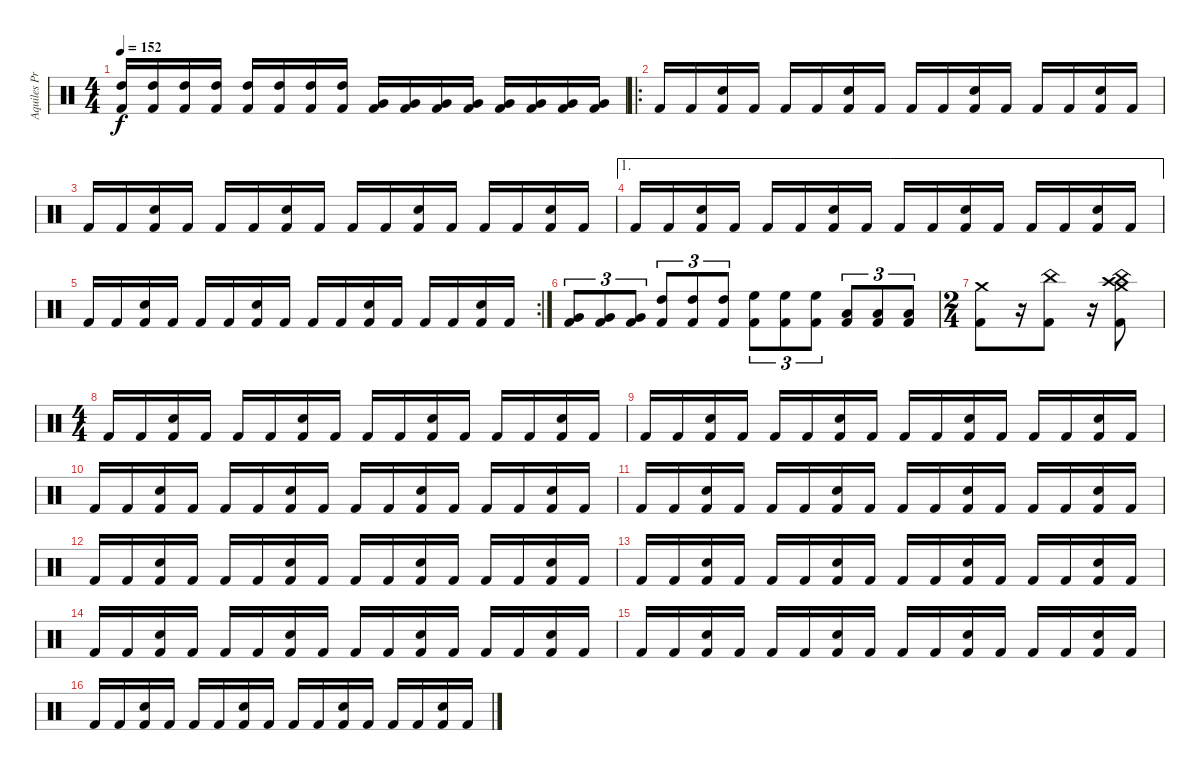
\track ("Aquiles Priester" "Aquiles Pr") {instrument percussion}
\staff {score}
\articulation defaults
\ts (4 4)
\tempo 152
\clef neutral
\ks c
("High Tom (hit)" "Kick (hit) 2").16{dy f} ("High Tom (hit)" "Kick (hit) 2").16 ("High Tom (hit)" "Kick (hit) 2").16 ("High Tom (hit)" "Kick (hit) 2").16 ("High Tom (hit)" "Kick (hit) 2").16 ("High Tom (hit)" "Kick (hit) 2").16 ("High Tom (hit)" "Kick (hit) 2").16 ("High Tom (hit)" "Kick (hit) 2").16 ("Very Low Tom (hit)" "Kick (hit) 2").16 ("Very Low Tom (hit)" "Kick (hit) 2").16 ("Very Low Tom (hit)" "Kick (hit) 2").16 ("Very Low Tom (hit)" "Kick (hit) 2").16 ("Very Low Tom (hit)" "Kick (hit) 2").16 ("Very Low Tom (hit)" "Kick (hit) 2").16 ("Very Low Tom (hit)" "Kick (hit) 2").16 ("Very Low Tom (hit)" "Kick (hit) 2").16 |
\ro "Kick (hit) 2".16 "Kick (hit) 2".16
("Electric Snare (hit)" "Kick (hit) 2").16 "Kick (hit) 2".16 "Kick (hit) 2".16 "Kick (hit) 2".16 ("Electric Snare (hit)" "Kick (hit) 2").16 "Kick (hit) 2".16 "Kick (hit) 2".16 "Kick (hit) 2".16 ("Electric Snare (hit)" "Kick (hit) 2").16 "Kick (hit) 2".16 "Kick (hit) 2".16 "Kick (hit) 2".16 ("Electric Snare (hit)" "Kick (hit) 2").16 "Kick (hit) 2".16 |
"Kick (hit) 2".16 "Kick (hit) 2".16 ("Electric Snare (hit)" "Kick (hit) 2").16 "Kick (hit) 2".16 "Kick (hit) 2".16 "Kick (hit) 2".16 ("Electric Snare (hit)" "Kick (hit) 2").16 "Kick (hit) 2".16 "Kick (hit) 2".16 "Kick (hit) 2".16 ("Electric Snare (hit)" "Kick (hit) 2").16 "Kick (hit) 2".16 "Kick (hit) 2".16 "Kick (hit) 2".16 ("Electric Snare (hit)" "Kick (hit) 2").16 "Kick (hit) 2".16 |
\ae 1 "Kick (hit) 2".16 "Kick (hit) 2".16
("Electric Snare (hit)" "Kick (hit) 2").16 "Kick (hit) 2".16 "Kick (hit) 2".16 "Kick (hit) 2".16 ("Electric Snare (hit)" "Kick (hit) 2").16 "Kick (hit) 2".16 "Kick (hit) 2".16 "Kick (hit) 2".16 ("Electric Snare (hit)" "Kick (hit) 2").16 "Kick (hit) 2".16 "Kick (hit) 2".16 "Kick (hit) 2".16 ("Electric Snare (hit)" "Kick (hit) 2").16 "Kick (hit) 2".16 |
\rc 2 "Kick (hit) 2".16 "Kick (hit) 2".16
("Electric Snare (hit)" "Kick (hit) 2").16 "Kick (hit) 2".16 "Kick (hit) 2".16 "Kick (hit) 2".16 ("Electric Snare (hit)" "Kick (hit) 2").16 "Kick (hit) 2".16 "Kick (hit) 2".16 "Kick (hit) 2".16 ("Electric Snare (hit)" "Kick (hit) 2").16 "Kick (hit) 2".16 "Kick (hit) 2".16 "Kick (hit) 2".16 ("Electric Snare (hit)" "Kick (hit) 2").16 "Kick (hit) 2".16 |
("Very Low Tom (hit)" "Kick (hit) 2").8{tu (3 2)} ("Very Low Tom (hit)" "Kick (hit) 2").8{tu (3 2)} ("Very Low Tom (hit)" "Kick (hit) 2").8{tu (3 2)} ("High Tom (hit)" "Kick (hit) 2").8{tu (3 2)} ("High Tom (hit)" "Kick (hit) 2").8{tu (3 2)} ("High Tom (hit)" "Kick (hit) 2").8{tu (3 2)} ("High Floor Tom (hit)" "Kick (hit) 2").8{tu (3 2)} ("High Floor Tom (hit)" "Kick (hit) 2").8{tu (3 2)} ("High Floor Tom (hit)" "Kick (hit) 2").8{tu (3 2)} ("Low Tom (hit)" "Kick (hit) 2").8{tu (3 2)} ("Low Tom (hit)" "Kick (hit) 2").8{tu (3 2)} ("Low Tom (hit)" "Kick (hit) 2").8{tu (3 2)} |
\ts (2 4)
("Crash medium (hit)" "Kick (hit) 2").8 r.16 ("China (hit)" "Kick (hit) 2").8 r.16 ("Crash medium (hit)" "China (hit)" "Crash high (hit)" "Kick (hit) 2").8 |
\ts (4 4)
"Kick (hit) 2".16 "Kick (hit) 2".16 ("Electric Snare (hit)" "Kick (hit) 2").16 "Kick (hit) 2".16 "Kick (hit) 2".16 "Kick (hit) 2".16 ("Electric Snare (hit)" "Kick (hit) 2").16 "Kick (hit) 2".16 "Kick (hit) 2".16 "Kick (hit) 2".16 ("Electric Snare (hit)" "Kick (hit) 2").16 "Kick (hit) 2".16 "Kick (hit) 2".16 "Kick (hit) 2".16 ("Electric Snare (hit)" "Kick (hit) 2").16 "Kick (hit) 2".16 |
"Kick (hit) 2".16 "Kick (hit) 2".16 ("Electric Snare (hit)" "Kick (hit) 2").16 "Kick (hit) 2".16 "Kick (hit) 2".16 "Kick (hit) 2".16 ("Electric Snare (hit)" "Kick (hit) 2").16 "Kick (hit) 2".16 "Kick (hit) 2".16 "Kick (hit) 2".16 ("Electric Snare (hit)" "Kick (hit) 2").16 "Kick (hit) 2".16 "Kick (hit) 2".16 "Kick (hit) 2".16 ("Electric Snare (hit)" "Kick (hit) 2").16 "Kick (hit) 2".16 |
"Kick (hit) 2".16 "Kick (hit) 2".16 ("Electric Snare (hit)" "Kick (hit) 2").16 "Kick (hit) 2".16 "Kick (hit) 2".16 "Kick (hit) 2".16 ("Electric Snare (hit)" "Kick (hit) 2").16 "Kick (hit) 2".16 "Kick (hit) 2".16 "Kick (hit) 2".16 ("Electric Snare (hit)" "Kick (hit) 2").16 "Kick (hit) 2".16 "Kick (hit) 2".16 "Kick (hit) 2".16 ("Electric Snare (hit)" "Kick (hit) 2").16 "Kick (hit) 2".16 |
"Kick (hit) 2".16 "Kick (hit) 2".16 ("Electric Snare (hit)" "Kick (hit) 2").16 "Kick (hit) 2".16 "Kick (hit) 2".16 "Kick (hit) 2".16 ("Electric Snare (hit)" "Kick (hit) 2").16 "Kick (hit) 2".16 "Kick (hit) 2".16 "Kick (hit) 2".16 ("Electric Snare (hit)" "Kick (hit) 2").16 "Kick (hit) 2".16 "Kick (hit) 2".16 "Kick (hit) 2".16 ("Electric Snare (hit)" "Kick (hit) 2").16 "Kick (hit) 2".16 |
"Kick (hit) 2".16 "Kick (hit) 2".16 ("Electric Snare (hit)" "Kick (hit) 2").16 "Kick (hit) 2".16 "Kick (hit) 2".16 "Kick (hit) 2".16 ("Electric Snare (hit)" "Kick (hit) 2").16 "Kick (hit) 2".16 "Kick (hit) 2".16 "Kick (hit) 2".16 ("Electric Snare (hit)" "Kick (hit) 2").16 "Kick (hit) 2".16 "Kick (hit) 2".16 "Kick (hit) 2".16 ("Electric Snare (hit)" "Kick (hit) 2").16 "Kick (hit) 2".16 |
"Kick (hit) 2".16 "Kick (hit) 2".16 ("Electric Snare (hit)" "Kick (hit) 2").16 "Kick (hit) 2".16 "Kick (hit) 2".16 "Kick (hit) 2".16 ("Electric Snare (hit)" "Kick (hit) 2").16 "Kick (hit) 2".16 "Kick (hit) 2".16 "Kick (hit) 2".16 ("Electric Snare (hit)" "Kick (hit) 2").16 "Kick (hit) 2".16 "Kick (hit) 2".16 "Kick (hit) 2".16 ("Electric Snare (hit)" "Kick (hit) 2").16 "Kick (hit) 2".16 |
"Kick (hit) 2".16 "Kick (hit) 2".16 ("Electric Snare (hit)" "Kick (hit) 2").16 "Kick (hit) 2".16 "Kick (hit) 2".16 "Kick (hit) 2".16 ("Electric Snare (hit)" "Kick (hit) 2").16 "Kick (hit) 2".16 "Kick (hit) 2".16 "Kick (hit) 2".16 ("Electric Snare (hit)" "Kick (hit) 2").16 "Kick (hit) 2".16 "Kick (hit) 2".16 "Kick (hit) 2".16 ("Electric Snare (hit)" "Kick (hit) 2").16 "Kick (hit) 2".16 |
"Kick (hit) 2".16 "Kick (hit) 2".16 ("Electric Snare (hit)" "Kick (hit) 2").16 "Kick (hit) 2".16 "Kick (hit) 2".16 "Kick (hit) 2".16 ("Electric Snare (hit)" "Kick (hit) 2").16 "Kick (hit) 2".16 "Kick (hit) 2".16 "Kick (hit) 2".16 ("Electric Snare (hit)" "Kick (hit) 2").16 "Kick (hit) 2".16 "Kick (hit) 2".16 "Kick (hit) 2".16 ("Electric Snare (hit)" "Kick (hit) 2").16 "Kick (hit) 2".16 |
"Kick (hit) 2".16 "Kick (hit) 2".16 ("Electric Snare (hit)" "Kick (hit) 2").16 "Kick (hit) 2".16 "Kick (hit) 2".16 "Kick (hit) 2".16 ("Electric Snare (hit)" "Kick (hit) 2").16 "Kick (hit) 2".16 "Kick (hit) 2".16 "Kick (hit) 2".16 ("Electric Snare (hit)" "Kick (hit) 2").16 "Kick (hit) 2".16 "Kick (hit) 2".16 "Kick (hit) 2".16 ("Electric Snare (hit)" "Kick (hit) 2").16 "Kick (hit) 2".16
